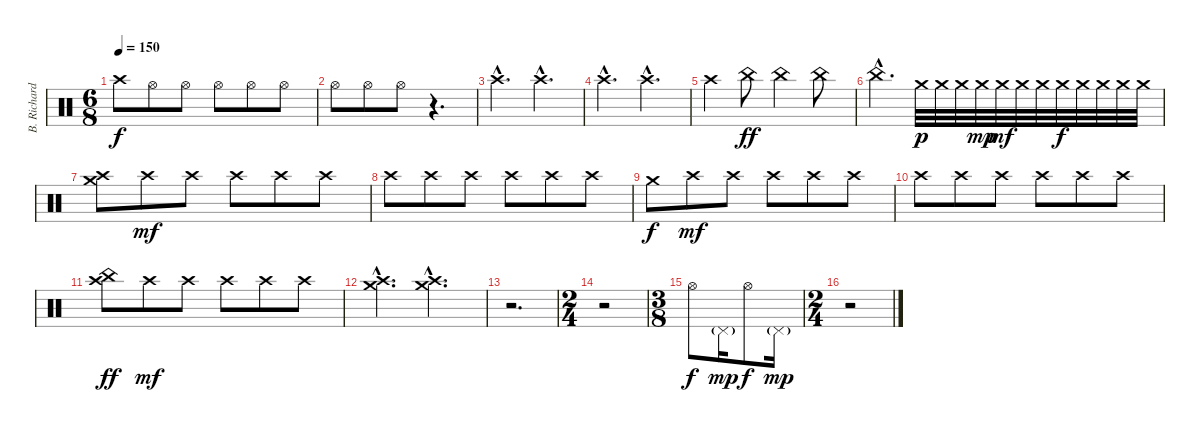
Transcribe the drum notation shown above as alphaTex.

\track ("B. Richardson Drums" "B. Richard") {instrument percussion}
\staff {score}
\articulation defaults
\ts (6 8)
\tempo 150
\clef neutral
\ks c "Crash high (hit)".8{dy f} "Hi-Hat (open)".8 "Hi-Hat (open)".8 "Hi-Hat (open)".8 "Hi-Hat (open)".8 "Hi-Hat (open)".8
|
"Hi-Hat (open)".8 "Hi-Hat (open)".8 "Hi-Hat (open)".8 r.4{d} |
"Crash high (hit)"{hac}.4{d} "Crash high (hit)"{hac}.4{d} |
"Crash high (hit)"{hac}.4{d} "Crash high (hit)"{hac}.4{d} |
"Crash high (hit)".4 "China (hit)".8{dy ff} "China (hit)".4 "China (hit)".8 |
"China (hit)"{hac}.4{d} "Crash medium (hit)".32{dy p} "Crash medium (hit)".32 "Crash medium (hit)".32 "Crash medium (hit)".32{dy mp} "Crash medium (hit)".32{dy mf} "Crash medium (hit)".32 "Crash medium (hit)".32 "Crash medium (hit)".32{dy f} "Crash medium (hit)".32 "Crash medium (hit)".32 "Crash medium (hit)".32 "Crash medium (hit)".32 |
("Crash medium (hit)" "Crash high (hit)").8 "Crash high (hit)".8{dy mf} "Crash high (hit)".8 "Crash high (hit)".8 "Crash high (hit)".8 "Crash high (hit)".8 |
"Crash high (hit)".8 "Crash high (hit)".8 "Crash high (hit)".8 "Crash high (hit)".8 "Crash high (hit)".8 "Crash high (hit)".8 |
"Crash medium (hit)".8{dy f} "Crash high (hit)".8{dy mf} "Crash high (hit)".8 "Crash high (hit)".8 "Crash high (hit)".8 "Crash high (hit)".8 |
"Crash high (hit)".8 "Crash high (hit)".8 "Crash high (hit)".8 "Crash high (hit)".8 "Crash high (hit)".8 "Crash high (hit)".8 |
("Crash high (hit)" "China (hit)").8{dy ff} "Crash high (hit)".8{dy mf} "Crash high (hit)".8 "Crash high (hit)".8 "Crash high (hit)".8 "Crash high (hit)".8 |
("Crash high (hit)"{hac} "Crash medium (hit)"{hac}).4{d} ("Crash high (hit)"{hac} "Crash medium (hit)"{hac}).4{d} |
r.2{d} |
\ts (2 4)
r.2 |
\ts (3 8)
"Hi-Hat (open)".8{dy f} "Pedal Hi-Hat (hit)"{g}.16{dy mp} "Hi-Hat (open)".8{dy f} "Pedal Hi-Hat (hit)"{g}.16{dy mp} |
\ts (2 4)
r.2
